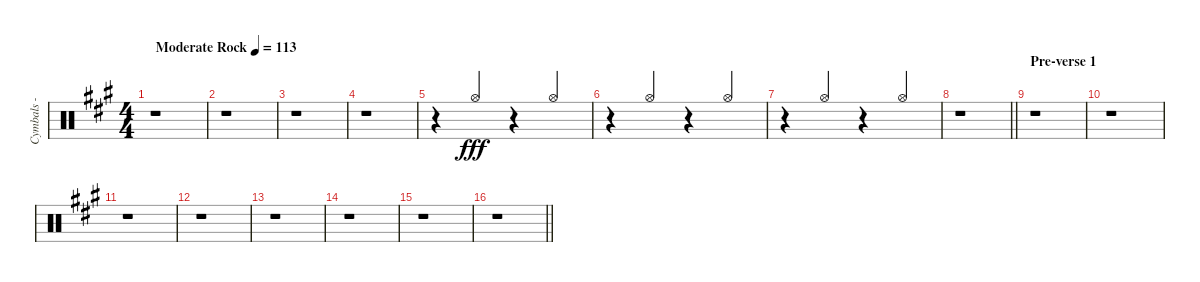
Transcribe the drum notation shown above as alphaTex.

\track ("Cymbals - hi-hat" "Cymbals - ") {instrument percussion}
\staff {score}
\articulation defaults
\ts (4 4)
\tempo (113 "Moderate Rock")
\clef neutral
\ks f#minor
r.1{dy fff} |
r.1 |
r.1 |
r.1 |
r.4{volume 5 balance 10} "Hi-Hat (open)".4{beam Up} r.4 "Hi-Hat (open)".4{beam Up} |
r.4 "Hi-Hat (open)".4{beam Up} r.4 "Hi-Hat (open)".4{beam Up} |
r.4 "Hi-Hat (open)".4{beam Up} r.4 "Hi-Hat (open)".4{beam Up} |
\barLineRight lightlight
r.1 |
\section ("" "Pre-verse 1")
r.1 |
r.1 |
r.1 |
r.1 |
r.1 |
r.1 |
r.1 |
\barLineRight lightlight
r.1
